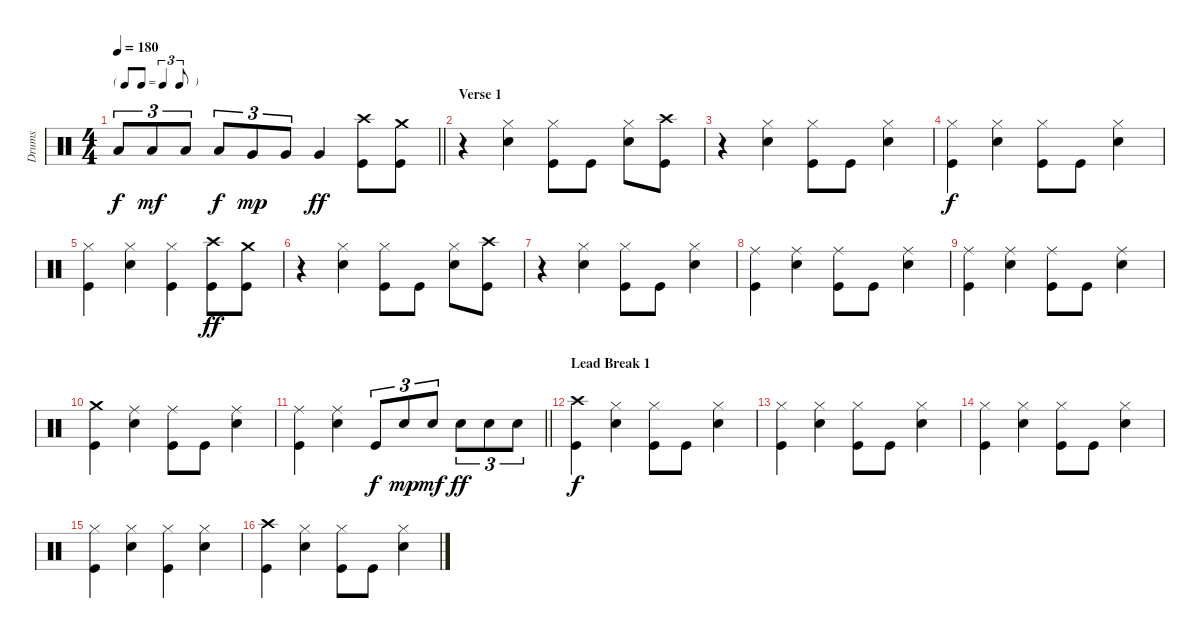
\track ("Drums" "Drums") {instrument percussion}
\staff {score}
\articulation defaults
\ts (4 4)
\tf triplet8th
\tempo 180
\clef neutral
\barLineRight lightlight
\ks c "Low Tom (hit)".8{tu (3 2) dy f} "Low Tom (hit)".8{tu (3 2) dy mf} "Low Tom (hit)".8{tu (3 2)} "Low Tom (hit)".8{tu (3 2) dy f} "Very Low Tom (hit)".8{tu (3 2) dy mp} "Very Low Tom (hit)".8{tu (3 2)} "Very Low Tom (hit)".4{dy ff}
("Kick (hit)" "Crash high (hit)").8 ("Crash medium (hit)" "Kick (hit)").8 |
\section ("" "Verse 1")
r.4 ("Snare (hit) 2" "Hi-Hat (closed)").4 ("Kick (hit)" "Hi-Hat (closed)").8 "Kick (hit)".8 ("Snare (hit) 2" "Hi-Hat (closed)").8 ("Crash high (hit)" "Kick (hit)").8 |
r.4 ("Snare (hit) 2" "Hi-Hat (closed)").4 ("Kick (hit)" "Hi-Hat (closed)").8 "Kick (hit)".8 ("Snare (hit) 2" "Hi-Hat (closed)").4 |
("Hi-Hat (closed)" "Kick (hit)").4{dy f} ("Snare (hit) 2" "Hi-Hat (closed)").4 ("Kick (hit)" "Hi-Hat (closed)").8 "Kick (hit)".8 ("Snare (hit) 2" "Hi-Hat (closed)").4 |
("Hi-Hat (closed)" "Kick (hit)").4 ("Snare (hit) 2" "Hi-Hat (closed)").4 ("Kick (hit)" "Hi-Hat (closed)").4 ("Kick (hit)" "Crash high (hit)").8{dy ff} ("Crash medium (hit)" "Kick (hit)").8 |
r.4 ("Snare (hit) 2" "Hi-Hat (closed)").4 ("Kick (hit)" "Hi-Hat (closed)").8 "Kick (hit)".8 ("Snare (hit) 2" "Hi-Hat (closed)").8 ("Crash high (hit)" "Kick (hit)").8 |
r.4 ("Snare (hit) 2" "Hi-Hat (closed)").4 ("Kick (hit)" "Hi-Hat (closed)").8 "Kick (hit)".8 ("Snare (hit) 2" "Hi-Hat (closed)").4 |
("Kick (hit)" "Ride (middle)").4 ("Ride (middle)" "Snare (hit) 2").4 ("Kick (hit)" "Ride (middle)").8 "Kick (hit)".8 ("Ride (middle)" "Snare (hit) 2").4 |
("Kick (hit)" "Ride (middle)").4 ("Ride (middle)" "Snare (hit) 2").4 ("Kick (hit)" "Ride (middle)").8 "Kick (hit)".8 ("Ride (middle)" "Snare (hit) 2").4 |
("Kick (hit)" "Crash medium (hit)").4 ("Ride (middle)" "Snare (hit) 2").4 ("Kick (hit)" "Ride (middle)").8 "Kick (hit)".8 ("Ride (middle)" "Snare (hit) 2").4 |
\barLineRight lightlight
("Kick (hit)" "Ride (middle)").4 ("Ride (middle)" "Snare (hit) 2").4 "Kick (hit)".8{tu (3 2) dy f} "Snare (hit) 2".8{tu (3 2) dy mp} "Snare (hit) 2".8{tu (3 2) dy mf} "Snare (hit) 2".8{tu (3 2) dy ff} "Snare (hit) 2".8{tu (3 2)} "Snare (hit) 2".8{tu (3 2)} |
\section ("" "Lead Break 1")
("Crash high (hit)" "Kick (hit)").4{dy f} ("Snare (hit) 2" "Hi-Hat (closed)").4 ("Kick (hit)" "Hi-Hat (closed)").8 "Kick (hit)".8 ("Snare (hit) 2" "Hi-Hat (closed)").4 |
("Hi-Hat (closed)" "Kick (hit)").4 ("Snare (hit) 2" "Hi-Hat (closed)").4 ("Kick (hit)" "Hi-Hat (closed)").8 "Kick (hit)".8 ("Snare (hit) 2" "Hi-Hat (closed)").4 |
("Hi-Hat (closed)" "Kick (hit)").4 ("Snare (hit) 2" "Hi-Hat (closed)").4 ("Kick (hit)" "Hi-Hat (closed)").8 "Kick (hit)".8 ("Snare (hit) 2" "Hi-Hat (closed)").4 |
("Hi-Hat (closed)" "Kick (hit)").4 ("Snare (hit) 2" "Hi-Hat (closed)").4 ("Kick (hit)" "Hi-Hat (closed)").4 ("Snare (hit) 2" "Hi-Hat (closed)").4 |
("Crash high (hit)" "Kick (hit)").4 ("Snare (hit) 2" "Hi-Hat (closed)").4 ("Kick (hit)" "Hi-Hat (closed)").8 "Kick (hit)".8 ("Snare (hit) 2" "Hi-Hat (closed)").4
